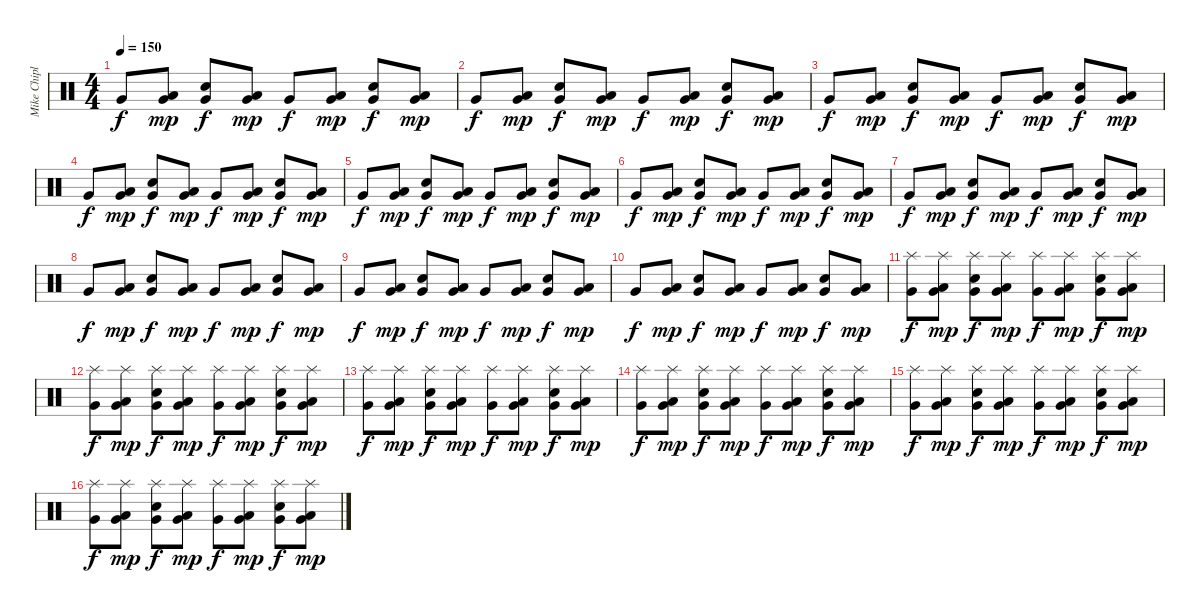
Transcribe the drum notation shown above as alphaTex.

\track ("Mike Chiplin" "Mike Chipl") {instrument percussion}
\staff {score}
\articulation defaults
\ts (4 4)
\tempo 150
\clef neutral
\ks c "Very Low Tom (hit)".8{dy f}
("Low Floor Tom (hit)" "Very Low Tom (hit)").8{dy mp} ("Very Low Tom (hit)" "Snare (hit) 2").8{dy f} ("Low Floor Tom (hit)" "Very Low Tom (hit)").8{dy mp} "Very Low Tom (hit)".8{dy f} ("Low Floor Tom (hit)" "Very Low Tom (hit)").8{dy mp} ("Very Low Tom (hit)" "Snare (hit) 2").8{dy f} ("Low Floor Tom (hit)" "Very Low Tom (hit)").8{dy mp} |
"Very Low Tom (hit)".8{dy f} ("Low Floor Tom (hit)" "Very Low Tom (hit)").8{dy mp} ("Very Low Tom (hit)" "Snare (hit) 2").8{dy f} ("Low Floor Tom (hit)" "Very Low Tom (hit)").8{dy mp} "Very Low Tom (hit)".8{dy f} ("Low Floor Tom (hit)" "Very Low Tom (hit)").8{dy mp} ("Very Low Tom (hit)" "Snare (hit) 2").8{dy f} ("Low Floor Tom (hit)" "Very Low Tom (hit)").8{dy mp} |
"Very Low Tom (hit)".8{dy f} ("Low Floor Tom (hit)" "Very Low Tom (hit)").8{dy mp} ("Very Low Tom (hit)" "Snare (hit) 2").8{dy f} ("Low Floor Tom (hit)" "Very Low Tom (hit)").8{dy mp} "Very Low Tom (hit)".8{dy f} ("Low Floor Tom (hit)" "Very Low Tom (hit)").8{dy mp} ("Very Low Tom (hit)" "Snare (hit) 2").8{dy f} ("Low Floor Tom (hit)" "Very Low Tom (hit)").8{dy mp} |
"Very Low Tom (hit)".8{dy f} ("Low Floor Tom (hit)" "Very Low Tom (hit)").8{dy mp} ("Very Low Tom (hit)" "Snare (hit) 2").8{dy f} ("Low Floor Tom (hit)" "Very Low Tom (hit)").8{dy mp} "Very Low Tom (hit)".8{dy f} ("Low Floor Tom (hit)" "Very Low Tom (hit)").8{dy mp} ("Very Low Tom (hit)" "Snare (hit) 2").8{dy f} ("Low Floor Tom (hit)" "Very Low Tom (hit)").8{dy mp} |
"Very Low Tom (hit)".8{dy f} ("Low Floor Tom (hit)" "Very Low Tom (hit)").8{dy mp} ("Very Low Tom (hit)" "Snare (hit) 2").8{dy f} ("Low Floor Tom (hit)" "Very Low Tom (hit)").8{dy mp} "Very Low Tom (hit)".8{dy f} ("Low Floor Tom (hit)" "Very Low Tom (hit)").8{dy mp} ("Very Low Tom (hit)" "Snare (hit) 2").8{dy f} ("Low Floor Tom (hit)" "Very Low Tom (hit)").8{dy mp} |
"Very Low Tom (hit)".8{dy f} ("Low Floor Tom (hit)" "Very Low Tom (hit)").8{dy mp} ("Very Low Tom (hit)" "Snare (hit) 2").8{dy f} ("Low Floor Tom (hit)" "Very Low Tom (hit)").8{dy mp} "Very Low Tom (hit)".8{dy f} ("Low Floor Tom (hit)" "Very Low Tom (hit)").8{dy mp} ("Very Low Tom (hit)" "Snare (hit) 2").8{dy f} ("Low Floor Tom (hit)" "Very Low Tom (hit)").8{dy mp} |
"Very Low Tom (hit)".8{dy f} ("Low Floor Tom (hit)" "Very Low Tom (hit)").8{dy mp} ("Very Low Tom (hit)" "Snare (hit) 2").8{dy f} ("Low Floor Tom (hit)" "Very Low Tom (hit)").8{dy mp} "Very Low Tom (hit)".8{dy f} ("Low Floor Tom (hit)" "Very Low Tom (hit)").8{dy mp} ("Very Low Tom (hit)" "Snare (hit) 2").8{dy f} ("Low Floor Tom (hit)" "Very Low Tom (hit)").8{dy mp} |
"Very Low Tom (hit)".8{dy f} ("Low Floor Tom (hit)" "Very Low Tom (hit)").8{dy mp} ("Very Low Tom (hit)" "Snare (hit) 2").8{dy f} ("Low Floor Tom (hit)" "Very Low Tom (hit)").8{dy mp} "Very Low Tom (hit)".8{dy f} ("Low Floor Tom (hit)" "Very Low Tom (hit)").8{dy mp} ("Very Low Tom (hit)" "Snare (hit) 2").8{dy f} ("Low Floor Tom (hit)" "Very Low Tom (hit)").8{dy mp} |
"Very Low Tom (hit)".8{dy f} ("Low Floor Tom (hit)" "Very Low Tom (hit)").8{dy mp} ("Very Low Tom (hit)" "Snare (hit) 2").8{dy f} ("Low Floor Tom (hit)" "Very Low Tom (hit)").8{dy mp} "Very Low Tom (hit)".8{dy f} ("Low Floor Tom (hit)" "Very Low Tom (hit)").8{dy mp} ("Very Low Tom (hit)" "Snare (hit) 2").8{dy f} ("Low Floor Tom (hit)" "Very Low Tom (hit)").8{dy mp} |
"Very Low Tom (hit)".8{dy f} ("Low Floor Tom (hit)" "Very Low Tom (hit)").8{dy mp} ("Very Low Tom (hit)" "Snare (hit) 2").8{dy f} ("Low Floor Tom (hit)" "Very Low Tom (hit)").8{dy mp} "Very Low Tom (hit)".8{dy f} ("Low Floor Tom (hit)" "Very Low Tom (hit)").8{dy mp} ("Very Low Tom (hit)" "Snare (hit) 2").8{dy f} ("Low Floor Tom (hit)" "Very Low Tom (hit)").8{dy mp} |
("Very Low Tom (hit)" "Splash (hit)").8{dy f} ("Low Floor Tom (hit)" "Very Low Tom (hit)" "Splash (hit)").8{dy mp} ("Very Low Tom (hit)" "Snare (hit) 2" "Splash (hit)").8{dy f} ("Low Floor Tom (hit)" "Very Low Tom (hit)" "Splash (hit)").8{dy mp} ("Very Low Tom (hit)" "Splash (hit)").8{dy f} ("Low Floor Tom (hit)" "Very Low Tom (hit)" "Splash (hit)").8{dy mp} ("Very Low Tom (hit)" "Snare (hit) 2" "Splash (hit)").8{dy f} ("Low Floor Tom (hit)" "Very Low Tom (hit)" "Splash (hit)").8{dy mp} |
("Very Low Tom (hit)" "Splash (hit)").8{dy f} ("Low Floor Tom (hit)" "Very Low Tom (hit)" "Splash (hit)").8{dy mp} ("Very Low Tom (hit)" "Snare (hit) 2" "Splash (hit)").8{dy f} ("Low Floor Tom (hit)" "Very Low Tom (hit)" "Splash (hit)").8{dy mp} ("Very Low Tom (hit)" "Splash (hit)").8{dy f} ("Low Floor Tom (hit)" "Very Low Tom (hit)" "Splash (hit)").8{dy mp} ("Very Low Tom (hit)" "Snare (hit) 2" "Splash (hit)").8{dy f} ("Low Floor Tom (hit)" "Very Low Tom (hit)" "Splash (hit)").8{dy mp} |
("Very Low Tom (hit)" "Splash (hit)").8{dy f} ("Low Floor Tom (hit)" "Very Low Tom (hit)" "Splash (hit)").8{dy mp} ("Very Low Tom (hit)" "Snare (hit) 2" "Splash (hit)").8{dy f} ("Low Floor Tom (hit)" "Very Low Tom (hit)" "Splash (hit)").8{dy mp} ("Very Low Tom (hit)" "Splash (hit)").8{dy f} ("Low Floor Tom (hit)" "Very Low Tom (hit)" "Splash (hit)").8{dy mp} ("Very Low Tom (hit)" "Snare (hit) 2" "Splash (hit)").8{dy f} ("Low Floor Tom (hit)" "Very Low Tom (hit)" "Splash (hit)").8{dy mp} |
("Very Low Tom (hit)" "Splash (hit)").8{dy f} ("Low Floor Tom (hit)" "Very Low Tom (hit)" "Splash (hit)").8{dy mp} ("Very Low Tom (hit)" "Snare (hit) 2" "Splash (hit)").8{dy f} ("Low Floor Tom (hit)" "Very Low Tom (hit)" "Splash (hit)").8{dy mp} ("Very Low Tom (hit)" "Splash (hit)").8{dy f} ("Low Floor Tom (hit)" "Very Low Tom (hit)" "Splash (hit)").8{dy mp} ("Very Low Tom (hit)" "Snare (hit) 2" "Splash (hit)").8{dy f} ("Low Floor Tom (hit)" "Very Low Tom (hit)" "Splash (hit)").8{dy mp} |
("Very Low Tom (hit)" "Splash (hit)").8{dy f} ("Low Floor Tom (hit)" "Very Low Tom (hit)" "Splash (hit)").8{dy mp} ("Very Low Tom (hit)" "Snare (hit) 2" "Splash (hit)").8{dy f} ("Low Floor Tom (hit)" "Very Low Tom (hit)" "Splash (hit)").8{dy mp} ("Very Low Tom (hit)" "Splash (hit)").8{dy f} ("Low Floor Tom (hit)" "Very Low Tom (hit)" "Splash (hit)").8{dy mp} ("Very Low Tom (hit)" "Snare (hit) 2" "Splash (hit)").8{dy f} ("Low Floor Tom (hit)" "Very Low Tom (hit)" "Splash (hit)").8{dy mp} |
("Very Low Tom (hit)" "Splash (hit)").8{dy f} ("Low Floor Tom (hit)" "Very Low Tom (hit)" "Splash (hit)").8{dy mp} ("Very Low Tom (hit)" "Snare (hit) 2" "Splash (hit)").8{dy f} ("Low Floor Tom (hit)" "Very Low Tom (hit)" "Splash (hit)").8{dy mp} ("Very Low Tom (hit)" "Splash (hit)").8{dy f} ("Low Floor Tom (hit)" "Very Low Tom (hit)" "Splash (hit)").8{dy mp} ("Very Low Tom (hit)" "Snare (hit) 2" "Splash (hit)").8{dy f} ("Low Floor Tom (hit)" "Very Low Tom (hit)" "Splash (hit)").8{dy mp}
